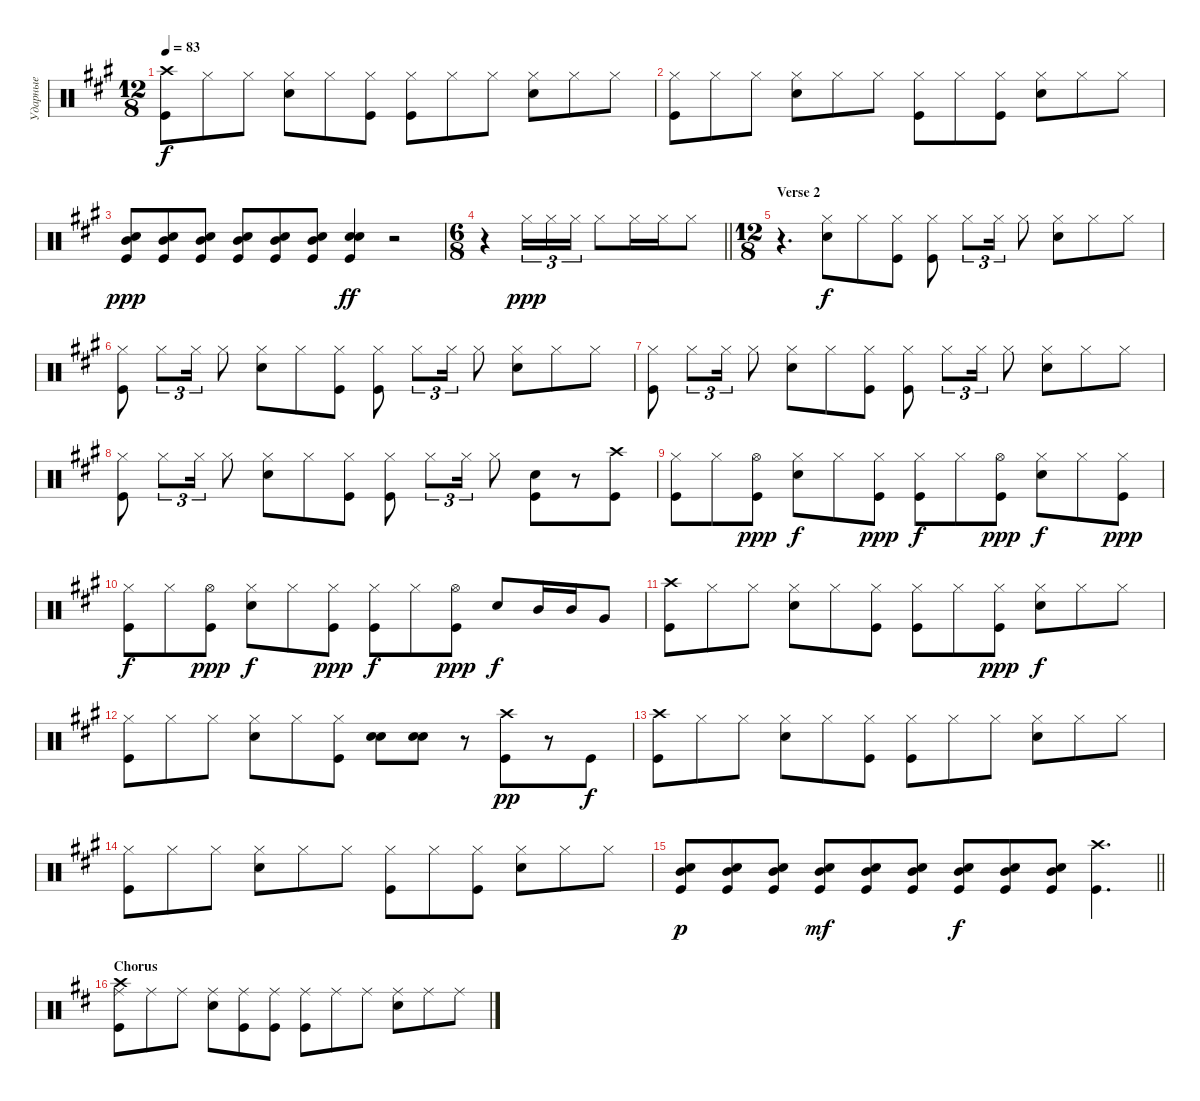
\track ("Ударные" "Ударные") {instrument percussion}
\staff {score}
\articulation defaults
\ts (12 8)
\tempo 83
\clef neutral
\ks f#minor
("Kick (hit)" "Crash high (hit)").8{dy f} "Hi-Hat (closed)".8 "Hi-Hat (closed)".8 ("Hi-Hat (closed)" "Snare (hit) 2").8 "Hi-Hat (closed)".8 ("Hi-Hat (closed)" "Kick (hit)").8 ("Hi-Hat (closed)" "Kick (hit)").8 "Hi-Hat (closed)".8 "Hi-Hat (closed)".8 ("Hi-Hat (closed)" "Snare (hit) 2").8 "Hi-Hat (closed)".8 "Hi-Hat (closed)".8 |
("Kick (hit)" "Hi-Hat (closed)").8 "Hi-Hat (closed)".8 "Hi-Hat (closed)".8 ("Hi-Hat (closed)" "Snare (hit) 2").8 "Hi-Hat (closed)".8 "Hi-Hat (closed)".8 ("Kick (hit)" "Hi-Hat (closed)").8 "Hi-Hat (closed)".8 ("Hi-Hat (closed)" "Kick (hit)").8 ("Hi-Hat (closed)" "Snare (hit) 2").8 "Hi-Hat (closed)".8 "Hi-Hat (closed)".8 |
("Kick (hit)" "Snare (hit) 2" "Mid Tom (hit)").8{bd 60 dy ppp} ("Kick (hit)" "Snare (hit) 2" "Mid Tom (hit)").8{bd 60} ("Kick (hit)" "Snare (hit) 2" "Mid Tom (hit)").8{bd 60} ("Kick (hit)" "Snare (hit) 2" "Mid Tom (hit)").8{bd 60} ("Kick (hit)" "Snare (hit) 2" "Mid Tom (hit)").8{bd 60} ("Kick (hit)" "Snare (hit) 2" "Mid Tom (hit)").8{bd 60} ("Kick (hit)" "Snare (hit) 2" "Snare (hit) 2").4{bd 120 dy ff} r.2 |
\ts (6 8)
\barLineRight lightlight
r.4 "Hi-Hat (closed)".16{tu (3 2) dy ppp} "Hi-Hat (closed)".16{tu (3 2)} "Hi-Hat (closed)".16{tu (3 2)} "Hi-Hat (closed)".8 "Hi-Hat (closed)".16 "Hi-Hat (closed)".16 "Hi-Hat (closed)".8 |
\ts (12 8)
\section ("" "Verse 2")
r.4{d} ("Snare (hit) 2" "Hi-Hat (closed)").8{dy f} "Hi-Hat (closed)".8 ("Hi-Hat (closed)" "Kick (hit)").8 ("Kick (hit)" "Hi-Hat (closed)").8 "Hi-Hat (closed)".8{tu (3 2)} "Hi-Hat (closed)".16{tu (3 2)} "Hi-Hat (closed)".8 ("Snare (hit) 2" "Hi-Hat (closed)").8 "Hi-Hat (closed)".8 "Hi-Hat (closed)".8 |
("Kick (hit)" "Hi-Hat (closed)").8 "Hi-Hat (closed)".8{tu (3 2)} "Hi-Hat (closed)".16{tu (3 2)} "Hi-Hat (closed)".8 ("Snare (hit) 2" "Hi-Hat (closed)").8 "Hi-Hat (closed)".8 ("Hi-Hat (closed)" "Kick (hit)").8 ("Kick (hit)" "Hi-Hat (closed)").8 "Hi-Hat (closed)".8{tu (3 2)} "Hi-Hat (closed)".16{tu (3 2)} "Hi-Hat (closed)".8 ("Snare (hit) 2" "Hi-Hat (closed)").8 "Hi-Hat (closed)".8 "Hi-Hat (closed)".8 |
("Kick (hit)" "Hi-Hat (closed)").8 "Hi-Hat (closed)".8{tu (3 2)} "Hi-Hat (closed)".16{tu (3 2)} "Hi-Hat (closed)".8 ("Snare (hit) 2" "Hi-Hat (closed)").8 "Hi-Hat (closed)".8 ("Hi-Hat (closed)" "Kick (hit)").8 ("Kick (hit)" "Hi-Hat (closed)").8 "Hi-Hat (closed)".8{tu (3 2)} "Hi-Hat (closed)".16{tu (3 2)} "Hi-Hat (closed)".8 ("Snare (hit) 2" "Hi-Hat (closed)").8 "Hi-Hat (closed)".8 "Hi-Hat (closed)".8 |
("Kick (hit)" "Hi-Hat (closed)").8 "Hi-Hat (closed)".8{tu (3 2)} "Hi-Hat (closed)".16{tu (3 2)} "Hi-Hat (closed)".8 ("Snare (hit) 2" "Hi-Hat (closed)").8 "Hi-Hat (closed)".8 ("Hi-Hat (closed)" "Kick (hit)").8 ("Kick (hit)" "Hi-Hat (closed)").8 "Hi-Hat (closed)".8{tu (3 2)} "Hi-Hat (closed)".16{tu (3 2)} "Hi-Hat (closed)".8 ("Kick (hit)" "Snare (hit) 2").8{bd 120} r.8 ("Kick (hit)" "Crash high (hit)").8 |
("Kick (hit)" "Hi-Hat (closed)").8 "Hi-Hat (closed)".8 ("Hi-Hat (open)" "Kick (hit)").8{dy ppp} ("Snare (hit) 2" "Hi-Hat (closed)").8{dy f} "Hi-Hat (closed)".8 ("Hi-Hat (closed)" "Kick (hit)").8{dy ppp} ("Kick (hit)" "Hi-Hat (closed)").8{dy f} "Hi-Hat (closed)".8 ("Hi-Hat (open)" "Kick (hit)").8{dy ppp} ("Snare (hit) 2" "Hi-Hat (closed)").8{dy f} "Hi-Hat (closed)".8 ("Hi-Hat (closed)" "Kick (hit)").8{dy ppp} |
("Kick (hit)" "Hi-Hat (closed)").8{dy f} "Hi-Hat (closed)".8 ("Hi-Hat (open)" "Kick (hit)").8{dy ppp} ("Snare (hit) 2" "Hi-Hat (closed)").8{dy f} "Hi-Hat (closed)".8 ("Hi-Hat (closed)" "Kick (hit)").8{dy ppp} ("Kick (hit)" "Hi-Hat (closed)").8{dy f} "Hi-Hat (closed)".8 ("Hi-Hat (open)" "Kick (hit)").8{dy ppp} "Snare (hit) 2".8{dy f} "Mid Tom (hit)".16 "Mid Tom (hit)".16 "Very Low Tom (hit)".8 |
("Kick (hit)" "Crash high (hit)").8 "Hi-Hat (closed)".8 "Hi-Hat (closed)".8 ("Hi-Hat (closed)" "Snare (hit) 2").8 "Hi-Hat (closed)".8 ("Hi-Hat (closed)" "Kick (hit)").8 ("Hi-Hat (closed)" "Kick (hit)").8 "Hi-Hat (closed)".8 ("Hi-Hat (closed)" "Kick (hit)").8{dy ppp} ("Hi-Hat (closed)" "Snare (hit) 2").8{dy f} "Hi-Hat (closed)".8 "Hi-Hat (closed)".8 |
("Kick (hit)" "Hi-Hat (closed)").8 "Hi-Hat (closed)".8 "Hi-Hat (closed)".8 ("Hi-Hat (closed)" "Snare (hit) 2").8 "Hi-Hat (closed)".8 ("Hi-Hat (closed)" "Kick (hit)").8 ("Snare (hit) 2" "Snare (hit) 2").8{bd 120} ("Snare (hit) 2" "Snare (hit) 2").8{bd 120} r.8 ("Kick (hit)" "Crash high (hit)").8{dy pp} r.8 "Kick (hit)".8{dy f} |
("Kick (hit)" "Crash high (hit)").8 "Hi-Hat (closed)".8 "Hi-Hat (closed)".8 ("Hi-Hat (closed)" "Snare (hit) 2").8 "Hi-Hat (closed)".8 ("Hi-Hat (closed)" "Kick (hit)").8 ("Hi-Hat (closed)" "Kick (hit)").8 "Hi-Hat (closed)".8 "Hi-Hat (closed)".8 ("Hi-Hat (closed)" "Snare (hit) 2").8 "Hi-Hat (closed)".8 "Hi-Hat (closed)".8 |
("Kick (hit)" "Hi-Hat (closed)").8 "Hi-Hat (closed)".8 "Hi-Hat (closed)".8 ("Hi-Hat (closed)" "Snare (hit) 2").8 "Hi-Hat (closed)".8 "Hi-Hat (closed)".8 ("Kick (hit)" "Hi-Hat (closed)").8 "Hi-Hat (closed)".8 ("Hi-Hat (closed)" "Kick (hit)").8 ("Hi-Hat (closed)" "Snare (hit) 2").8 "Hi-Hat (closed)".8 "Hi-Hat (closed)".8 |
\barLineRight lightlight
("Kick (hit)" "Snare (hit) 2" "Mid Tom (hit)").8{bd 60 dy p} ("Kick (hit)" "Snare (hit) 2" "Mid Tom (hit)").8{bd 60} ("Kick (hit)" "Snare (hit) 2" "Mid Tom (hit)").8{bd 60} ("Kick (hit)" "Snare (hit) 2" "Mid Tom (hit)").8{bd 60 dy mf} ("Kick (hit)" "Snare (hit) 2" "Mid Tom (hit)").8{bd 60} ("Kick (hit)" "Snare (hit) 2" "Mid Tom (hit)").8{bd 60} ("Kick (hit)" "Snare (hit) 2" "Mid Tom (hit)").8{bd 60 dy f} ("Kick (hit)" "Snare (hit) 2" "Mid Tom (hit)").8{bd 60} ("Kick (hit)" "Snare (hit) 2" "Mid Tom (hit)").8{bd 60} ("Kick (hit)" "Crash high (hit)").4{d} |
\section ("" "Chorus")
\ks bminor
("Kick (hit)" "Ride (middle)" "Crash high (hit)").8 "Ride (middle)".8 "Ride (middle)".8 ("Ride (middle)" "Snare (hit) 2").8 ("Ride (middle)" "Kick (hit)").8 ("Ride (middle)" "Kick (hit)").8 ("Kick (hit)" "Ride (middle)").8 "Ride (middle)".8 "Ride (middle)".8 ("Ride (middle)" "Snare (hit) 2").8 "Ride (middle)".8 "Ride (middle)".8
